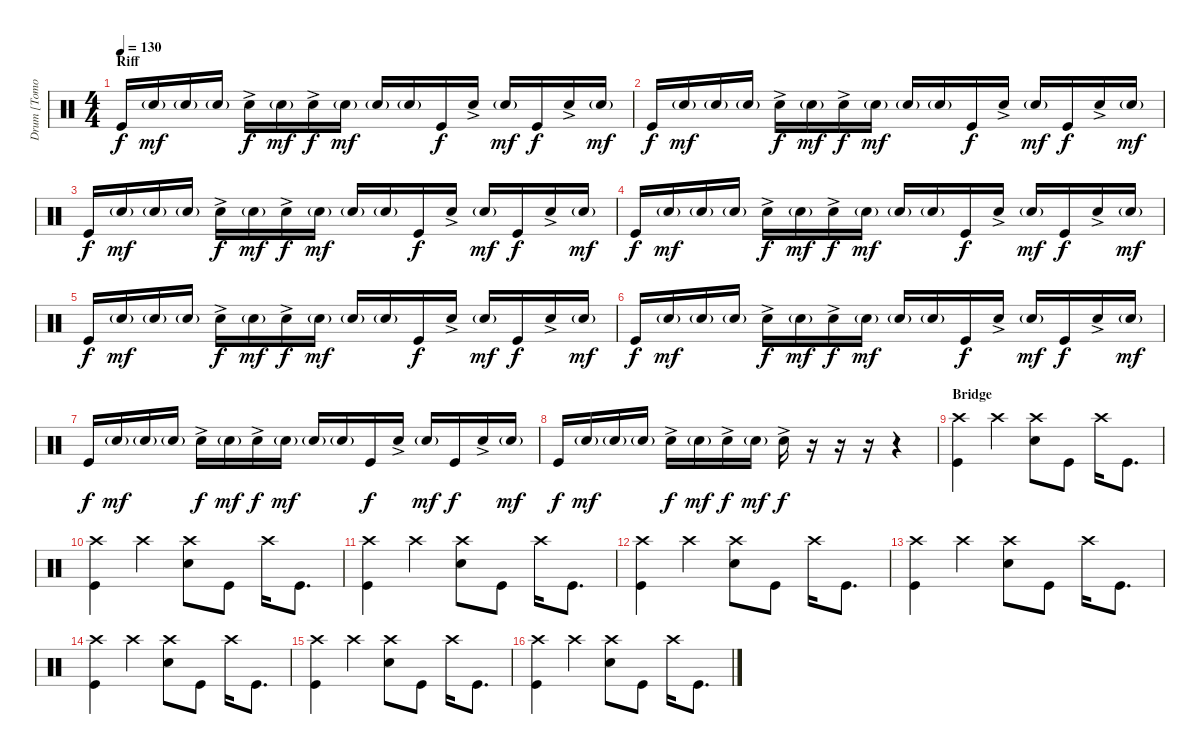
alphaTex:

\track ("Drum [Tomoya]" "Drum [Tomo") {instrument percussion}
\staff {score}
\articulation defaults
\ts (4 4)
\section ("" "Riff")
\tempo 130
\clef neutral
\ks c "Kick (hit)".16{dy f} "Snare (hit) 2"{g}.16{dy mf} "Snare (hit) 2"{g}.16 "Snare (hit) 2"{g}.16 "Snare (hit) 2"{ac}.16{dy f} "Snare (hit) 2"{g}.16{dy mf} "Snare (hit) 2"{ac}.16{dy f} "Snare (hit) 2"{g}.16{dy mf} "Snare (hit) 2"{g}.16 "Snare (hit) 2"{g}.16 "Kick (hit)".16{dy f} "Snare (hit) 2"{ac}.16 "Snare (hit) 2"{g}.16{dy mf} "Kick (hit)".16{dy f} "Snare (hit) 2"{ac}.16 "Snare (hit) 2"{g}.16{dy mf}
|
"Kick (hit)".16{dy f} "Snare (hit) 2"{g}.16{dy mf} "Snare (hit) 2"{g}.16 "Snare (hit) 2"{g}.16 "Snare (hit) 2"{ac}.16{dy f} "Snare (hit) 2"{g}.16{dy mf} "Snare (hit) 2"{ac}.16{dy f} "Snare (hit) 2"{g}.16{dy mf} "Snare (hit) 2"{g}.16 "Snare (hit) 2"{g}.16 "Kick (hit)".16{dy f} "Snare (hit) 2"{ac}.16 "Snare (hit) 2"{g}.16{dy mf} "Kick (hit)".16{dy f} "Snare (hit) 2"{ac}.16 "Snare (hit) 2"{g}.16{dy mf} |
"Kick (hit)".16{dy f} "Snare (hit) 2"{g}.16{dy mf} "Snare (hit) 2"{g}.16 "Snare (hit) 2"{g}.16 "Snare (hit) 2"{ac}.16{dy f} "Snare (hit) 2"{g}.16{dy mf} "Snare (hit) 2"{ac}.16{dy f} "Snare (hit) 2"{g}.16{dy mf} "Snare (hit) 2"{g}.16 "Snare (hit) 2"{g}.16 "Kick (hit)".16{dy f} "Snare (hit) 2"{ac}.16 "Snare (hit) 2"{g}.16{dy mf} "Kick (hit)".16{dy f} "Snare (hit) 2"{ac}.16 "Snare (hit) 2"{g}.16{dy mf} |
"Kick (hit)".16{dy f} "Snare (hit) 2"{g}.16{dy mf} "Snare (hit) 2"{g}.16 "Snare (hit) 2"{g}.16 "Snare (hit) 2"{ac}.16{dy f} "Snare (hit) 2"{g}.16{dy mf} "Snare (hit) 2"{ac}.16{dy f} "Snare (hit) 2"{g}.16{dy mf} "Snare (hit) 2"{g}.16 "Snare (hit) 2"{g}.16 "Kick (hit)".16{dy f} "Snare (hit) 2"{ac}.16 "Snare (hit) 2"{g}.16{dy mf} "Kick (hit)".16{dy f} "Snare (hit) 2"{ac}.16 "Snare (hit) 2"{g}.16{dy mf} |
"Kick (hit)".16{dy f} "Snare (hit) 2"{g}.16{dy mf} "Snare (hit) 2"{g}.16 "Snare (hit) 2"{g}.16 "Snare (hit) 2"{ac}.16{dy f} "Snare (hit) 2"{g}.16{dy mf} "Snare (hit) 2"{ac}.16{dy f} "Snare (hit) 2"{g}.16{dy mf} "Snare (hit) 2"{g}.16 "Snare (hit) 2"{g}.16 "Kick (hit)".16{dy f} "Snare (hit) 2"{ac}.16 "Snare (hit) 2"{g}.16{dy mf} "Kick (hit)".16{dy f} "Snare (hit) 2"{ac}.16 "Snare (hit) 2"{g}.16{dy mf} |
"Kick (hit)".16{dy f} "Snare (hit) 2"{g}.16{dy mf} "Snare (hit) 2"{g}.16 "Snare (hit) 2"{g}.16 "Snare (hit) 2"{ac}.16{dy f} "Snare (hit) 2"{g}.16{dy mf} "Snare (hit) 2"{ac}.16{dy f} "Snare (hit) 2"{g}.16{dy mf} "Snare (hit) 2"{g}.16 "Snare (hit) 2"{g}.16 "Kick (hit)".16{dy f} "Snare (hit) 2"{ac}.16 "Snare (hit) 2"{g}.16{dy mf} "Kick (hit)".16{dy f} "Snare (hit) 2"{ac}.16 "Snare (hit) 2"{g}.16{dy mf} |
"Kick (hit)".16{dy f} "Snare (hit) 2"{g}.16{dy mf} "Snare (hit) 2"{g}.16 "Snare (hit) 2"{g}.16 "Snare (hit) 2"{ac}.16{dy f} "Snare (hit) 2"{g}.16{dy mf} "Snare (hit) 2"{ac}.16{dy f} "Snare (hit) 2"{g}.16{dy mf} "Snare (hit) 2"{g}.16 "Snare (hit) 2"{g}.16 "Kick (hit)".16{dy f} "Snare (hit) 2"{ac}.16 "Snare (hit) 2"{g}.16{dy mf} "Kick (hit)".16{dy f} "Snare (hit) 2"{ac}.16 "Snare (hit) 2"{g}.16{dy mf} |
"Kick (hit)".16{dy f} "Snare (hit) 2"{g}.16{dy mf} "Snare (hit) 2"{g}.16 "Snare (hit) 2"{g}.16 "Snare (hit) 2"{ac}.16{dy f} "Snare (hit) 2"{g}.16{dy mf} "Snare (hit) 2"{ac}.16{dy f} "Snare (hit) 2"{g}.16{dy mf} "Snare (hit) 2"{ac}.16{dy f} r.16 r.16 r.16 r.4 |
\section ("" "Bridge")
("Crash high (hit)" "Kick (hit)").4 "Crash high (hit)".4 ("Crash high (hit)" "Snare (hit) 2").8 "Kick (hit)".8 "Crash high (hit)".16 "Kick (hit)".8{d} |
("Crash high (hit)" "Kick (hit)").4 "Crash high (hit)".4 ("Crash high (hit)" "Snare (hit) 2").8 "Kick (hit)".8 "Crash high (hit)".16 "Kick (hit)".8{d} |
("Crash high (hit)" "Kick (hit)").4 "Crash high (hit)".4 ("Crash high (hit)" "Snare (hit) 2").8 "Kick (hit)".8 "Crash high (hit)".16 "Kick (hit)".8{d} |
("Crash high (hit)" "Kick (hit)").4 "Crash high (hit)".4 ("Crash high (hit)" "Snare (hit) 2").8 "Kick (hit)".8 "Crash high (hit)".16 "Kick (hit)".8{d} |
("Crash high (hit)" "Kick (hit)").4 "Crash high (hit)".4 ("Crash high (hit)" "Snare (hit) 2").8 "Kick (hit)".8 "Crash high (hit)".16 "Kick (hit)".8{d} |
("Crash high (hit)" "Kick (hit)").4 "Crash high (hit)".4 ("Crash high (hit)" "Snare (hit) 2").8 "Kick (hit)".8 "Crash high (hit)".16 "Kick (hit)".8{d} |
("Crash high (hit)" "Kick (hit)").4 "Crash high (hit)".4 ("Crash high (hit)" "Snare (hit) 2").8 "Kick (hit)".8 "Crash high (hit)".16 "Kick (hit)".8{d} |
("Crash high (hit)" "Kick (hit)").4 "Crash high (hit)".4 ("Crash high (hit)" "Snare (hit) 2").8 "Kick (hit)".8 "Crash high (hit)".16 "Kick (hit)".8{d}
